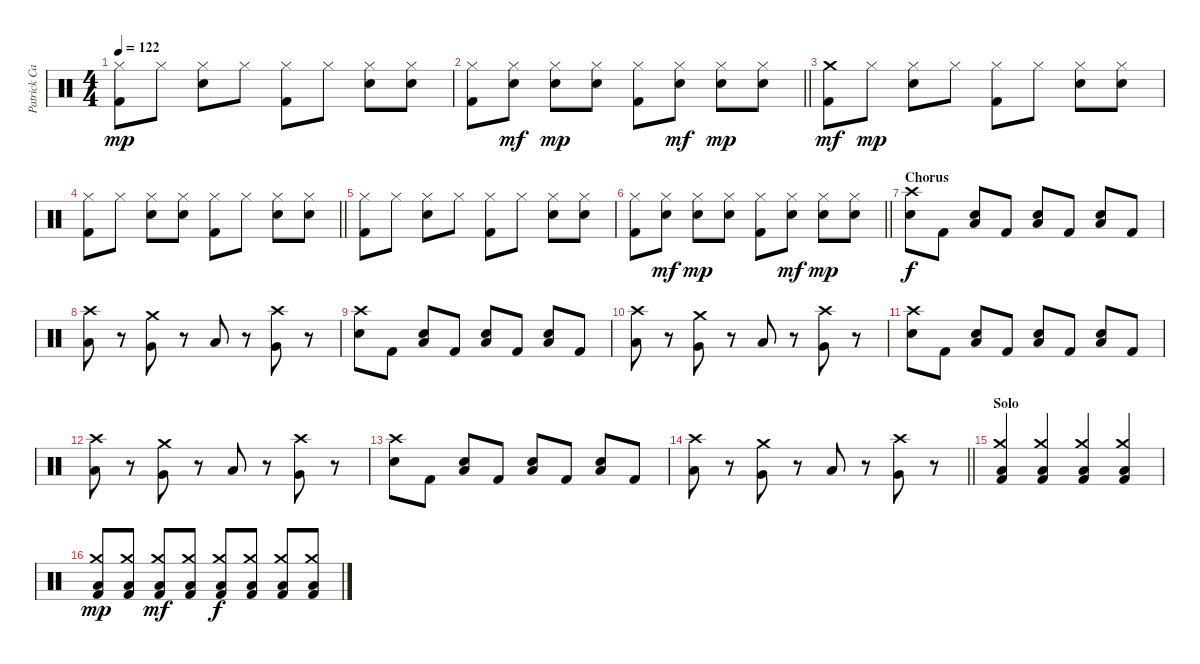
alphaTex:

\track ("Patrick Carney" "Patrick Ca") {instrument percussion}
\staff {score}
\articulation defaults
\ts (4 4)
\tempo 122
\clef neutral
\ks c
("Hi-Hat (closed)" "Kick (hit) 2").8{dy mp} "Hi-Hat (closed)".8 ("Hi-Hat (closed)" "Electric Snare (hit)").8 "Hi-Hat (closed)".8 ("Hi-Hat (closed)" "Kick (hit) 2").8 "Hi-Hat (closed)".8 ("Hi-Hat (closed)" "Electric Snare (hit)").8 ("Hi-Hat (closed)" "Electric Snare (hit)").8 |
\barLineRight lightlight
("Hi-Hat (closed)" "Kick (hit) 2").8 ("Hi-Hat (closed)" "Electric Snare (hit)").8{dy mf} ("Hi-Hat (closed)" "Electric Snare (hit)").8{dy mp} ("Hi-Hat (closed)" "Electric Snare (hit)").8 ("Hi-Hat (closed)" "Kick (hit) 2").8 ("Hi-Hat (closed)" "Electric Snare (hit)").8{dy mf} ("Hi-Hat (closed)" "Electric Snare (hit)").8{dy mp} ("Hi-Hat (closed)" "Electric Snare (hit)").8 |
("Crash medium (hit)" "Kick (hit) 2").8{dy mf} "Hi-Hat (closed)".8{dy mp} ("Hi-Hat (closed)" "Electric Snare (hit)").8 "Hi-Hat (closed)".8 ("Hi-Hat (closed)" "Kick (hit) 2").8 "Hi-Hat (closed)".8 ("Hi-Hat (closed)" "Electric Snare (hit)").8 ("Hi-Hat (closed)" "Electric Snare (hit)").8 |
\barLineRight lightlight
("Hi-Hat (closed)" "Kick (hit) 2").8 "Hi-Hat (closed)".8 ("Hi-Hat (closed)" "Electric Snare (hit)").8 ("Hi-Hat (closed)" "Electric Snare (hit)").8 ("Hi-Hat (closed)" "Kick (hit) 2").8 "Hi-Hat (closed)".8 ("Hi-Hat (closed)" "Electric Snare (hit)").8 ("Hi-Hat (closed)" "Electric Snare (hit)").8 |
("Hi-Hat (closed)" "Kick (hit) 2").8 "Hi-Hat (closed)".8 ("Hi-Hat (closed)" "Electric Snare (hit)").8 "Hi-Hat (closed)".8 ("Hi-Hat (closed)" "Kick (hit) 2").8 "Hi-Hat (closed)".8 ("Hi-Hat (closed)" "Electric Snare (hit)").8 ("Hi-Hat (closed)" "Electric Snare (hit)").8 |
\barLineRight lightlight
("Hi-Hat (closed)" "Kick (hit) 2").8 ("Hi-Hat (closed)" "Electric Snare (hit)").8{dy mf} ("Hi-Hat (closed)" "Electric Snare (hit)").8{dy mp} ("Hi-Hat (closed)" "Electric Snare (hit)").8 ("Hi-Hat (closed)" "Kick (hit) 2").8 ("Hi-Hat (closed)" "Electric Snare (hit)").8{dy mf} ("Hi-Hat (closed)" "Electric Snare (hit)").8{dy mp} ("Hi-Hat (closed)" "Electric Snare (hit)").8 |
\section ("" "Chorus")
("Crash high (hit)" "Electric Snare (hit)").8{dy f} "Kick (hit) 2".8 ("Electric Snare (hit)" "Low Floor Tom (hit)").8 "Kick (hit) 2".8 ("Electric Snare (hit)" "Low Floor Tom (hit)").8 "Kick (hit) 2".8 ("Electric Snare (hit)" "Low Floor Tom (hit)").8 "Kick (hit) 2".8 |
("Crash high (hit)" "Low Floor Tom (hit)").8 r.8 ("Crash medium (hit)" "Very Low Tom (hit)").8 r.8 "Low Floor Tom (hit)".8 r.8 ("Crash high (hit)" "Very Low Tom (hit)").8 r.8 |
("Crash high (hit)" "Electric Snare (hit)").8 "Kick (hit) 2".8 ("Electric Snare (hit)" "Low Floor Tom (hit)").8 "Kick (hit) 2".8 ("Electric Snare (hit)" "Low Floor Tom (hit)").8 "Kick (hit) 2".8 ("Electric Snare (hit)" "Low Floor Tom (hit)").8 "Kick (hit) 2".8 |
("Crash high (hit)" "Low Floor Tom (hit)").8 r.8 ("Crash medium (hit)" "Very Low Tom (hit)").8 r.8 "Low Floor Tom (hit)".8 r.8 ("Crash high (hit)" "Very Low Tom (hit)").8 r.8 |
("Crash high (hit)" "Electric Snare (hit)").8 "Kick (hit) 2".8 ("Electric Snare (hit)" "Low Floor Tom (hit)").8 "Kick (hit) 2".8 ("Electric Snare (hit)" "Low Floor Tom (hit)").8 "Kick (hit) 2".8 ("Electric Snare (hit)" "Low Floor Tom (hit)").8 "Kick (hit) 2".8 |
("Crash high (hit)" "Low Floor Tom (hit)").8 r.8 ("Crash medium (hit)" "Very Low Tom (hit)").8 r.8 "Low Floor Tom (hit)".8 r.8 ("Crash high (hit)" "Very Low Tom (hit)").8 r.8 |
("Crash high (hit)" "Electric Snare (hit)").8 "Kick (hit) 2".8 ("Electric Snare (hit)" "Low Floor Tom (hit)").8 "Kick (hit) 2".8 ("Electric Snare (hit)" "Low Floor Tom (hit)").8 "Kick (hit) 2".8 ("Electric Snare (hit)" "Low Floor Tom (hit)").8 "Kick (hit) 2".8 |
\barLineRight lightlight
("Crash high (hit)" "Low Floor Tom (hit)").8 r.8 ("Crash medium (hit)" "Very Low Tom (hit)").8 r.8 "Low Floor Tom (hit)".8 r.8 ("Crash high (hit)" "Very Low Tom (hit)").8 r.8 |
\section ("" "Solo")
("Crash medium (hit)" "Low Floor Tom (hit)" "Kick (hit) 2").4 ("Crash medium (hit)" "Low Floor Tom (hit)" "Kick (hit) 2").4 ("Crash medium (hit)" "Low Floor Tom (hit)" "Kick (hit) 2").4 ("Crash medium (hit)" "Low Floor Tom (hit)" "Kick (hit) 2").4 |
("Crash medium (hit)" "Low Floor Tom (hit)" "Kick (hit) 2").8{dy mp} ("Crash medium (hit)" "Low Floor Tom (hit)" "Kick (hit) 2").8 ("Crash medium (hit)" "Low Floor Tom (hit)" "Kick (hit) 2").8{dy mf} ("Crash medium (hit)" "Low Floor Tom (hit)" "Kick (hit) 2").8 ("Crash medium (hit)" "Low Floor Tom (hit)" "Kick (hit) 2").8{dy f} ("Crash medium (hit)" "Low Floor Tom (hit)" "Kick (hit) 2").8 ("Crash medium (hit)" "Low Floor Tom (hit)" "Kick (hit) 2").8 ("Crash medium (hit)" "Low Floor Tom (hit)" "Kick (hit) 2").8
